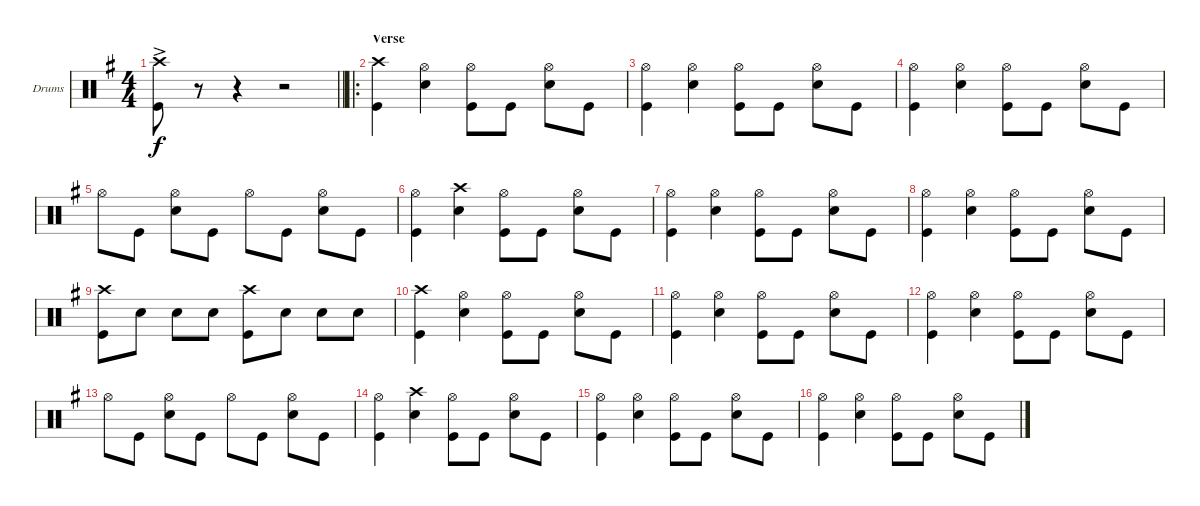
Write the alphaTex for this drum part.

\defaultSystemsLayout 4
\bracketExtendMode groupsimilarinstruments
\firstSystemTrackNameOrientation horizontal
\otherSystemsTrackNameOrientation horizontal
\track ("Drums" "Drums") {instrument percussion}
\staff {score}
\articulation defaults
\ts (4 4)
\tempo (188 hide)
\clef neutral
\barLineRight lightlight
\ks g
("Kick (hit)"{ac} "Crash high (hit)"{ac}).8{dy f} r.8 r.4 r.2 |
\ro
\section ("" "Verse")
("Kick (hit)" "Crash high (hit)").4 ("Snare (hit) 2" "Hi-Hat (open)").4 ("Kick (hit)" "Hi-Hat (open)").8 "Kick (hit)".8 ("Snare (hit) 2" "Hi-Hat (open)").8 "Kick (hit)".8 |
("Kick (hit)" "Hi-Hat (open)").4 ("Snare (hit) 2" "Hi-Hat (open)").4 ("Kick (hit)" "Hi-Hat (open)").8 "Kick (hit)".8 ("Snare (hit) 2" "Hi-Hat (open)").8 "Kick (hit)".8 |
("Kick (hit)" "Hi-Hat (open)").4 ("Snare (hit) 2" "Hi-Hat (open)").4 ("Kick (hit)" "Hi-Hat (open)").8 "Kick (hit)".8 ("Snare (hit) 2" "Hi-Hat (open)").8 "Kick (hit)".8 |
"Hi-Hat (open)".8 "Kick (hit)".8 ("Snare (hit) 2" "Hi-Hat (open)").8 "Kick (hit)".8 "Hi-Hat (open)".8 "Kick (hit)".8 ("Snare (hit) 2" "Hi-Hat (open)").8 "Kick (hit)".8 |
("Kick (hit)" "Hi-Hat (open)").4 ("Snare (hit) 2" "Crash high (hit)").4 ("Kick (hit)" "Hi-Hat (open)").8 "Kick (hit)".8 ("Snare (hit) 2" "Hi-Hat (open)").8 "Kick (hit)".8 |
("Kick (hit)" "Hi-Hat (open)").4 ("Snare (hit) 2" "Hi-Hat (open)").4 ("Kick (hit)" "Hi-Hat (open)").8 "Kick (hit)".8 ("Snare (hit) 2" "Hi-Hat (open)").8 "Kick (hit)".8 |
("Kick (hit)" "Hi-Hat (open)").4 ("Snare (hit) 2" "Hi-Hat (open)").4 ("Kick (hit)" "Hi-Hat (open)").8 "Kick (hit)".8 ("Snare (hit) 2" "Hi-Hat (open)").8 "Kick (hit)".8 |
("Kick (hit)" "Crash high (hit)").8 "Snare (hit) 2".8 "Snare (hit) 2".8 "Snare (hit) 2".8 ("Kick (hit)" "Crash high (hit)").8 "Snare (hit) 2".8 "Snare (hit) 2".8 "Snare (hit) 2".8 |
("Kick (hit)" "Crash high (hit)").4 ("Snare (hit) 2" "Hi-Hat (open)").4 ("Kick (hit)" "Hi-Hat (open)").8 "Kick (hit)".8 ("Snare (hit) 2" "Hi-Hat (open)").8 "Kick (hit)".8 |
("Kick (hit)" "Hi-Hat (open)").4 ("Snare (hit) 2" "Hi-Hat (open)").4 ("Kick (hit)" "Hi-Hat (open)").8 "Kick (hit)".8 ("Snare (hit) 2" "Hi-Hat (open)").8 "Kick (hit)".8 |
("Kick (hit)" "Hi-Hat (open)").4 ("Snare (hit) 2" "Hi-Hat (open)").4 ("Kick (hit)" "Hi-Hat (open)").8 "Kick (hit)".8 ("Snare (hit) 2" "Hi-Hat (open)").8 "Kick (hit)".8 |
"Hi-Hat (open)".8 "Kick (hit)".8 ("Snare (hit) 2" "Hi-Hat (open)").8 "Kick (hit)".8 "Hi-Hat (open)".8 "Kick (hit)".8 ("Snare (hit) 2" "Hi-Hat (open)").8 "Kick (hit)".8 |
("Kick (hit)" "Hi-Hat (open)").4 ("Snare (hit) 2" "Crash high (hit)").4 ("Kick (hit)" "Hi-Hat (open)").8 "Kick (hit)".8 ("Snare (hit) 2" "Hi-Hat (open)").8 "Kick (hit)".8 |
("Kick (hit)" "Hi-Hat (open)").4 ("Snare (hit) 2" "Hi-Hat (open)").4 ("Kick (hit)" "Hi-Hat (open)").8 "Kick (hit)".8 ("Snare (hit) 2" "Hi-Hat (open)").8 "Kick (hit)".8 |
("Kick (hit)" "Hi-Hat (open)").4 ("Snare (hit) 2" "Hi-Hat (open)").4 ("Kick (hit)" "Hi-Hat (open)").8 "Kick (hit)".8 ("Snare (hit) 2" "Hi-Hat (open)").8 "Kick (hit)".8
